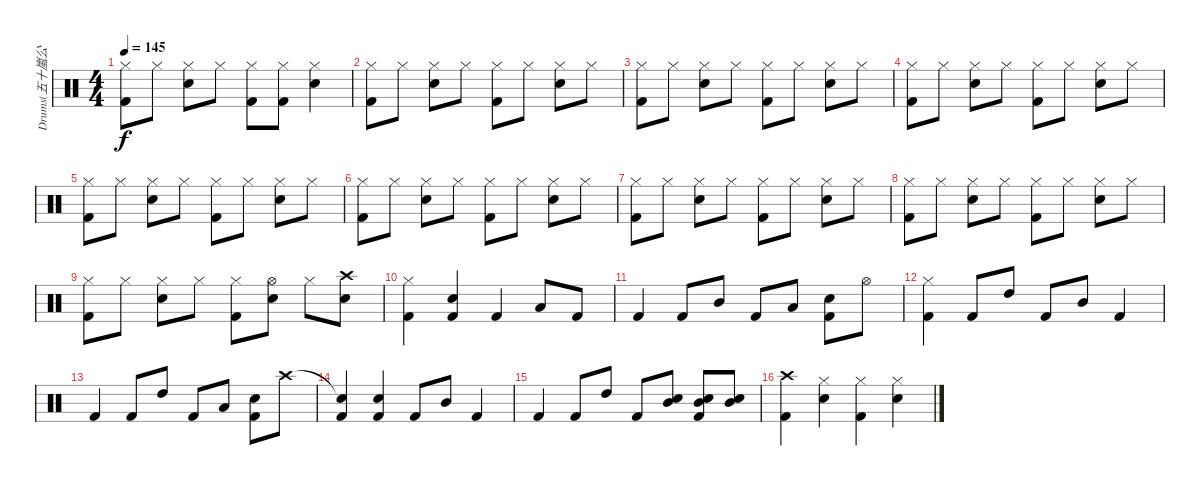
\track ("Drums(五十嵐公太)" "Drums(五十嵐公") {instrument percussion}
\staff {score}
\articulation defaults
\ts (4 4)
\tempo 145
\clef neutral
\ks c
("Hi-Hat (closed)" "Kick (hit) 2").8{dy f} "Hi-Hat (closed)".8 ("Hi-Hat (closed)" "Snare (hit) 2").8 "Hi-Hat (closed)".8 ("Hi-Hat (closed)" "Kick (hit) 2").8 ("Hi-Hat (closed)" "Kick (hit) 2").8 ("Hi-Hat (closed)" "Snare (hit) 2").4 |
("Hi-Hat (closed)" "Kick (hit) 2").8 "Hi-Hat (closed)".8 ("Hi-Hat (closed)" "Snare (hit) 2").8 "Hi-Hat (closed)".8 ("Hi-Hat (closed)" "Kick (hit) 2").8 "Hi-Hat (closed)".8 ("Hi-Hat (closed)" "Snare (hit) 2").8 "Hi-Hat (closed)".8 |
("Hi-Hat (closed)" "Kick (hit) 2").8 "Hi-Hat (closed)".8 ("Hi-Hat (closed)" "Snare (hit) 2").8 "Hi-Hat (closed)".8 ("Hi-Hat (closed)" "Kick (hit) 2").8 "Hi-Hat (closed)".8 ("Hi-Hat (closed)" "Snare (hit) 2").8 "Hi-Hat (closed)".8 |
("Hi-Hat (closed)" "Kick (hit) 2").8 "Hi-Hat (closed)".8 ("Hi-Hat (closed)" "Snare (hit) 2").8 "Hi-Hat (closed)".8 ("Hi-Hat (closed)" "Kick (hit) 2").8 "Hi-Hat (closed)".8 ("Hi-Hat (closed)" "Snare (hit) 2").8 "Hi-Hat (closed)".8 |
("Hi-Hat (closed)" "Kick (hit) 2").8 "Hi-Hat (closed)".8 ("Hi-Hat (closed)" "Snare (hit) 2").8 "Hi-Hat (closed)".8 ("Hi-Hat (closed)" "Kick (hit) 2").8 "Hi-Hat (closed)".8 ("Hi-Hat (closed)" "Snare (hit) 2").8 "Hi-Hat (closed)".8 |
("Hi-Hat (closed)" "Kick (hit) 2").8 "Hi-Hat (closed)".8 ("Hi-Hat (closed)" "Snare (hit) 2").8 "Hi-Hat (closed)".8 ("Hi-Hat (closed)" "Kick (hit) 2").8 "Hi-Hat (closed)".8 ("Hi-Hat (closed)" "Snare (hit) 2").8 "Hi-Hat (closed)".8 |
("Hi-Hat (closed)" "Kick (hit) 2").8 "Hi-Hat (closed)".8 ("Hi-Hat (closed)" "Snare (hit) 2").8 "Hi-Hat (closed)".8 ("Hi-Hat (closed)" "Kick (hit) 2").8 "Hi-Hat (closed)".8 ("Hi-Hat (closed)" "Snare (hit) 2").8 "Hi-Hat (closed)".8 |
("Hi-Hat (closed)" "Kick (hit) 2").8 "Hi-Hat (closed)".8 ("Hi-Hat (closed)" "Snare (hit) 2").8 "Hi-Hat (closed)".8 ("Hi-Hat (closed)" "Kick (hit) 2").8 "Hi-Hat (closed)".8 ("Hi-Hat (closed)" "Snare (hit) 2").8 "Hi-Hat (closed)".8 |
("Hi-Hat (closed)" "Kick (hit) 2").8 "Hi-Hat (closed)".8 ("Hi-Hat (closed)" "Snare (hit) 2").8 "Hi-Hat (closed)".8 ("Hi-Hat (closed)" "Kick (hit) 2").8 ("Hi-Hat (open)" "Snare (hit) 2").8 "Hi-Hat (closed)".8 ("Crash high (hit)" "Snare (hit) 2").8 |
("Hi-Hat (closed)" "Kick (hit) 2").4 ("Snare (hit) 2" "Kick (hit) 2").4 "Kick (hit) 2".4 "Low Tom (hit)".8 "Kick (hit) 2".8 |
"Kick (hit) 2".4 "Kick (hit) 2".8 "Mid Tom (hit)".8 "Kick (hit) 2".8 "Low Tom (hit)".8 ("Snare (hit) 2" "Kick (hit) 2").8 "Hi-Hat (open)".8 |
("Hi-Hat (closed)" "Kick (hit) 2").4 "Kick (hit) 2".8 "High Tom (hit)".8 "Kick (hit) 2".8 "Mid Tom (hit)".8 "Kick (hit) 2".4 |
"Kick (hit) 2".4 "Kick (hit) 2".8 "High Tom (hit)".8 "Kick (hit) 2".8 "Low Tom (hit)".8 ("Snare (hit) 2" "Kick (hit) 2").8 "Crash high (hit)".8 |
("Snare (hit)"{t} "Kick (hit) 2").4 ("Snare (hit) 2" "Kick (hit) 2").4 "Kick (hit) 2".8 "Mid Tom (hit)".8 "Kick (hit) 2".4 |
"Kick (hit) 2".4 "Kick (hit) 2".8 "High Tom (hit)".8 "Kick (hit) 2".8 ("Snare (hit) 2" "Mid Tom (hit)").8 ("Snare (hit) 2" "Mid Tom (hit)" "Kick (hit) 2").8 ("Mid Tom (hit)" "Snare (hit) 2").8 |
("Crash high (hit)" "Kick (hit) 2").4 ("Hi-Hat (closed)" "Snare (hit) 2").4 ("Hi-Hat (closed)" "Kick (hit) 2").4 ("Hi-Hat (closed)" "Snare (hit) 2").4
